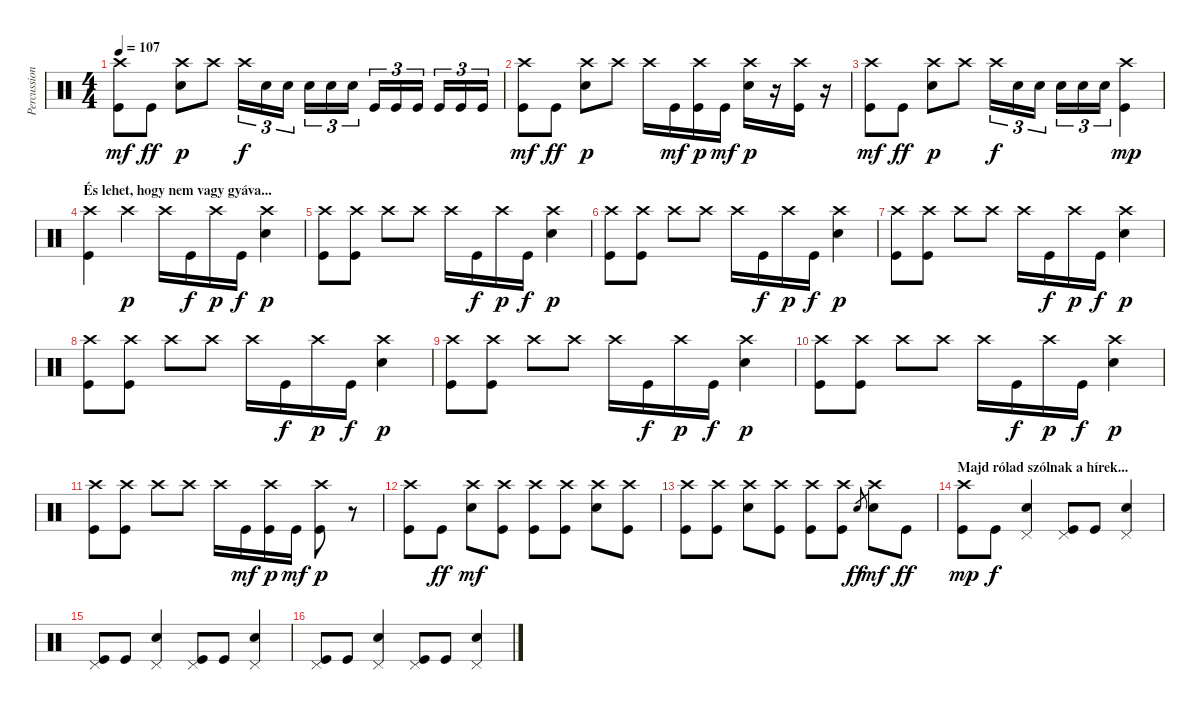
\track ("Percussion" "Percussion") {instrument percussion}
\staff {score}
\articulation defaults
\ts (4 4)
\tempo 107
\clef neutral
\ks c
("Kick (hit)" "Crash high (hit)").8{dy mf} "Kick (hit)".8{dy ff} ("Electric Snare (hit)" "Crash high (hit)").8{dy p} "Crash high (hit)".8 "Crash high (hit)".16{tu (3 2) dy f} "Electric Snare (hit)".16{tu (3 2)} "Electric Snare (hit)".16{tu (3 2)} "Electric Snare (hit)".16{tu (3 2)} "Electric Snare (hit)".16{tu (3 2)} "Electric Snare (hit)".16{tu (3 2)} "Kick (hit)".16{tu (3 2)} "Kick (hit)".16{tu (3 2)} "Kick (hit)".16{tu (3 2)} "Kick (hit)".16{tu (3 2)} "Kick (hit)".16{tu (3 2)} "Kick (hit)".16{tu (3 2)} |
("Kick (hit)" "Crash high (hit)").8{dy mf} "Kick (hit)".8{dy ff} ("Electric Snare (hit)" "Crash high (hit)").8{dy p} "Crash high (hit)".8 "Crash high (hit)".16 "Kick (hit)".16{dy mf} ("Kick (hit)" "Crash high (hit)").16{dy p} "Kick (hit)".16{dy mf} ("Electric Snare (hit)" "Crash high (hit)").16{dy p} r.16 ("Kick (hit)" "Crash high (hit)").16 r.16 |
("Kick (hit)" "Crash high (hit)").8{dy mf} "Kick (hit)".8{dy ff} ("Electric Snare (hit)" "Crash high (hit)").8{dy p} "Crash high (hit)".8 "Crash high (hit)".16{tu (3 2) dy f} "Electric Snare (hit)".16{tu (3 2)} "Electric Snare (hit)".16{tu (3 2)} "Electric Snare (hit)".16{tu (3 2)} "Electric Snare (hit)".16{tu (3 2)} "Electric Snare (hit)".16{tu (3 2)} ("Kick (hit)" "Crash high (hit)").4{dy mp} |
\section ("" "És lehet, hogy nem vagy gyáva...")
("Kick (hit)" "Crash high (hit)").4 "Crash high (hit)".4{dy p} "Crash high (hit)".16 "Kick (hit)".16{dy f} "Crash high (hit)".16{dy p} "Kick (hit)".16{dy f} ("Electric Snare (hit)" "Crash high (hit)").4{dy p} |
("Kick (hit)" "Crash high (hit)").8 ("Kick (hit)" "Crash high (hit)").8 "Crash high (hit)".8 "Crash high (hit)".8 "Crash high (hit)".16 "Kick (hit)".16{dy f} "Crash high (hit)".16{dy p} "Kick (hit)".16{dy f} ("Electric Snare (hit)" "Crash high (hit)").4{dy p} |
("Kick (hit)" "Crash high (hit)").8 ("Kick (hit)" "Crash high (hit)").8 "Crash high (hit)".8 "Crash high (hit)".8 "Crash high (hit)".16 "Kick (hit)".16{dy f} "Crash high (hit)".16{dy p} "Kick (hit)".16{dy f} ("Electric Snare (hit)" "Crash high (hit)").4{dy p} |
("Kick (hit)" "Crash high (hit)").8 ("Kick (hit)" "Crash high (hit)").8 "Crash high (hit)".8 "Crash high (hit)".8 "Crash high (hit)".16 "Kick (hit)".16{dy f} "Crash high (hit)".16{dy p} "Kick (hit)".16{dy f} ("Electric Snare (hit)" "Crash high (hit)").4{dy p} |
("Kick (hit)" "Crash high (hit)").8 ("Kick (hit)" "Crash high (hit)").8 "Crash high (hit)".8 "Crash high (hit)".8 "Crash high (hit)".16 "Kick (hit)".16{dy f} "Crash high (hit)".16{dy p} "Kick (hit)".16{dy f} ("Electric Snare (hit)" "Crash high (hit)").4{dy p} |
("Kick (hit)" "Crash high (hit)").8 ("Kick (hit)" "Crash high (hit)").8 "Crash high (hit)".8 "Crash high (hit)".8 "Crash high (hit)".16 "Kick (hit)".16{dy f} "Crash high (hit)".16{dy p} "Kick (hit)".16{dy f} ("Electric Snare (hit)" "Crash high (hit)").4{dy p} |
("Kick (hit)" "Crash high (hit)").8 ("Kick (hit)" "Crash high (hit)").8 "Crash high (hit)".8 "Crash high (hit)".8 "Crash high (hit)".16 "Kick (hit)".16{dy f} "Crash high (hit)".16{dy p} "Kick (hit)".16{dy f} ("Electric Snare (hit)" "Crash high (hit)").4{dy p} |
("Kick (hit)" "Crash high (hit)").8 ("Kick (hit)" "Crash high (hit)").8 "Crash high (hit)".8 "Crash high (hit)".8 "Crash high (hit)".16 "Kick (hit)".16{dy mf} ("Kick (hit)" "Crash high (hit)").16{dy p} "Kick (hit)".16{dy mf} ("Kick (hit)" "Crash high (hit)").8{dy p} r.8 |
("Kick (hit)" "Crash high (hit)").8 "Kick (hit)".8{dy ff} ("Electric Snare (hit)" "Crash high (hit)").8{dy mf} ("Kick (hit)" "Crash high (hit)").8 ("Kick (hit)" "Crash high (hit)").8 ("Kick (hit)" "Crash high (hit)").8 ("Electric Snare (hit)" "Crash high (hit)").8 ("Kick (hit)" "Crash high (hit)").8 |
("Kick (hit)" "Crash high (hit)").8 ("Kick (hit)" "Crash high (hit)").8 ("Electric Snare (hit)" "Crash high (hit)").8 ("Kick (hit)" "Crash high (hit)").8 ("Kick (hit)" "Crash high (hit)").8 ("Kick (hit)" "Crash high (hit)").8 "Electric Snare (hit)".8{gr dy ff} ("Electric Snare (hit)" "Crash high (hit)").8{dy mf} "Kick (hit)".8{dy ff} |
\section ("" "Majd rólad szólnak a hírek...")
("Kick (hit)" "Crash high (hit)").8{dy mp} "Kick (hit)".8{dy f} ("Electric Snare (hit)" "Pedal Hi-Hat (hit)").4 ("Kick (hit)" "Pedal Hi-Hat (hit)").8 "Kick (hit)".8 ("Electric Snare (hit)" "Pedal Hi-Hat (hit)").4 |
("Kick (hit)" "Pedal Hi-Hat (hit)").8 "Kick (hit)".8 ("Electric Snare (hit)" "Pedal Hi-Hat (hit)").4 ("Kick (hit)" "Pedal Hi-Hat (hit)").8 "Kick (hit)".8 ("Electric Snare (hit)" "Pedal Hi-Hat (hit)").4 |
("Kick (hit)" "Pedal Hi-Hat (hit)").8 "Kick (hit)".8 ("Electric Snare (hit)" "Pedal Hi-Hat (hit)").4 ("Kick (hit)" "Pedal Hi-Hat (hit)").8 "Kick (hit)".8 ("Electric Snare (hit)" "Pedal Hi-Hat (hit)").4
